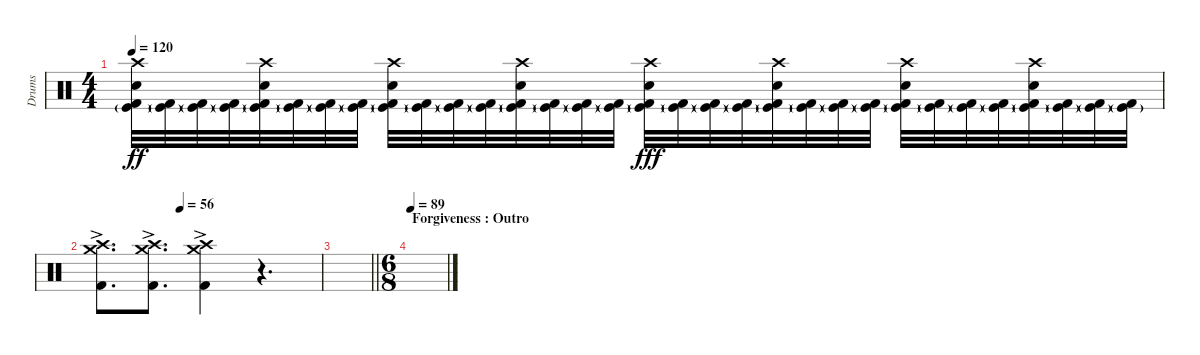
\track ("Drums" "Drums") {instrument percussion}
\staff {score}
\articulation defaults
\ts (4 4)
\tempo 120
\clef neutral
\ks c
("Crash high (hit)" "Kick (hit)"{g} "Electric Snare (hit)" "Kick (hit) 2").32{dy ff} ("Kick (hit)"{g} "Kick (hit) 2").32 ("Kick (hit)"{g} "Kick (hit) 2").32 ("Kick (hit)"{g} "Kick (hit) 2").32 ("Crash high (hit)" "Kick (hit)"{g} "Electric Snare (hit)" "Kick (hit) 2").32 ("Kick (hit)"{g} "Kick (hit) 2").32 ("Kick (hit)"{g} "Kick (hit) 2").32 ("Kick (hit)"{g} "Kick (hit) 2").32 ("Crash high (hit)" "Kick (hit)"{g} "Electric Snare (hit)" "Kick (hit) 2").32 ("Kick (hit)"{g} "Kick (hit) 2").32 ("Kick (hit)"{g} "Kick (hit) 2").32 ("Kick (hit)"{g} "Kick (hit) 2").32 ("Crash high (hit)" "Kick (hit)"{g} "Electric Snare (hit)" "Kick (hit) 2").32 ("Kick (hit)"{g} "Kick (hit) 2").32 ("Kick (hit)"{g} "Kick (hit) 2").32 ("Kick (hit)"{g} "Kick (hit) 2").32 ("Crash high (hit)" "Kick (hit)"{g} "Electric Snare (hit)" "Kick (hit) 2").32{dy fff} ("Kick (hit)"{g} "Kick (hit) 2").32 ("Kick (hit)"{g} "Kick (hit) 2").32 ("Kick (hit)"{g} "Kick (hit) 2").32 ("Crash high (hit)" "Kick (hit)"{g} "Electric Snare (hit)" "Kick (hit) 2").32 ("Kick (hit)"{g} "Kick (hit) 2").32 ("Kick (hit)"{g} "Kick (hit) 2").32 ("Kick (hit)"{g} "Kick (hit) 2").32 ("Crash high (hit)" "Kick (hit)"{g} "Electric Snare (hit)" "Kick (hit) 2").32 ("Kick (hit)"{g} "Kick (hit) 2").32 ("Kick (hit)"{g} "Kick (hit) 2").32 ("Kick (hit)"{g} "Kick (hit) 2").32 ("Crash high (hit)" "Kick (hit)"{g} "Electric Snare (hit)" "Kick (hit) 2").32 ("Kick (hit)"{g} "Kick (hit) 2").32 ("Kick (hit)"{g} "Kick (hit) 2").32 ("Kick (hit)"{g} "Kick (hit) 2").32 |
\tempo (56 0.375)
("Crash high (hit)" "Crash medium (hit)" "Kick (hit) 2"{ac}).8{d} ("Crash high (hit)" "Crash medium (hit)" "Kick (hit) 2"{ac}).8{d} ("Crash high (hit)" "Crash medium (hit)" "Kick (hit) 2"{ac}).4 r.4{d} |
\barLineRight lightlight
|
\ts (6 8)
\section ("" "Forgiveness : Outro")
\tempo 89
